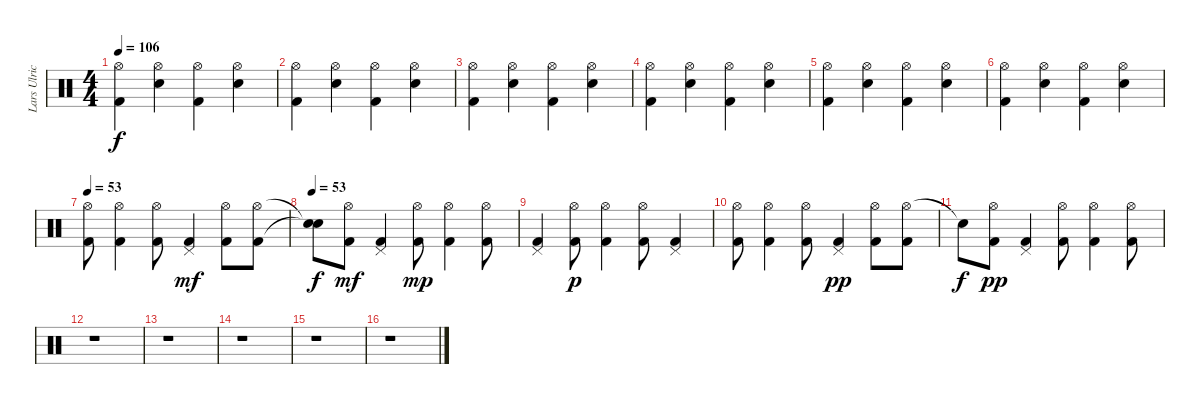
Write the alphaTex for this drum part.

\track ("Lars Ulrich" "Lars Ulric") {instrument percussion}
\staff {score}
\articulation defaults
\ts (4 4)
\tempo 106
\clef neutral
\ks c
("Hi-Hat (open)" "Kick (hit) 2").4{dy f} ("Hi-Hat (open)" "Electric Snare (hit)").4 ("Hi-Hat (open)" "Kick (hit) 2").4 ("Hi-Hat (open)" "Electric Snare (hit)").4 |
("Hi-Hat (open)" "Kick (hit) 2").4 ("Hi-Hat (open)" "Electric Snare (hit)").4 ("Hi-Hat (open)" "Kick (hit) 2").4 ("Hi-Hat (open)" "Electric Snare (hit)").4 |
("Hi-Hat (open)" "Kick (hit) 2").4 ("Hi-Hat (open)" "Electric Snare (hit)").4 ("Hi-Hat (open)" "Kick (hit) 2").4 ("Hi-Hat (open)" "Electric Snare (hit)").4 |
("Hi-Hat (open)" "Kick (hit) 2").4 ("Hi-Hat (open)" "Electric Snare (hit)").4 ("Hi-Hat (open)" "Kick (hit) 2").4 ("Hi-Hat (open)" "Electric Snare (hit)").4 |
("Hi-Hat (open)" "Kick (hit) 2").4 ("Hi-Hat (open)" "Electric Snare (hit)").4 ("Hi-Hat (open)" "Kick (hit) 2").4 ("Hi-Hat (open)" "Electric Snare (hit)").4 |
("Hi-Hat (open)" "Kick (hit) 2").4 ("Hi-Hat (open)" "Electric Snare (hit)").4 ("Hi-Hat (open)" "Kick (hit) 2").4 ("Hi-Hat (open)" "Electric Snare (hit)").4 |
\tempo 53
("Hi-Hat (open)" "Kick (hit) 2").8 ("Hi-Hat (open)" "Kick (hit) 2").4 ("Hi-Hat (open)" "Kick (hit) 2").8 ("Pedal Hi-Hat (hit)" "Kick (hit) 2").4{dy mf} ("Hi-Hat (open)" "Kick (hit) 2").8 ("Hi-Hat (open)" "Kick (hit) 2").8 |
\tempo 53
("Snare (hit)"{t} "Snare (hit)"{t}).8{dy f} ("Hi-Hat (open)" "Kick (hit) 2").8{dy mf} ("Pedal Hi-Hat (hit)" "Kick (hit) 2").4 ("Hi-Hat (open)" "Kick (hit) 2").8{dy mp} ("Hi-Hat (open)" "Kick (hit) 2").4 ("Hi-Hat (open)" "Kick (hit) 2").8 |
("Pedal Hi-Hat (hit)" "Kick (hit) 2").4 ("Hi-Hat (open)" "Kick (hit) 2").8{dy p} ("Hi-Hat (open)" "Kick (hit) 2").4 ("Hi-Hat (open)" "Kick (hit) 2").8 ("Pedal Hi-Hat (hit)" "Kick (hit) 2").4 |
("Hi-Hat (open)" "Kick (hit) 2").8 ("Hi-Hat (open)" "Kick (hit) 2").4 ("Hi-Hat (open)" "Kick (hit) 2").8 ("Pedal Hi-Hat (hit)" "Kick (hit) 2").4{dy pp} ("Hi-Hat (open)" "Kick (hit) 2").8 ("Hi-Hat (open)" "Kick (hit) 2").8 |
"Snare (hit)"{t}.8{dy f} ("Hi-Hat (open)" "Kick (hit) 2").8{dy pp} ("Pedal Hi-Hat (hit)" "Kick (hit) 2").4 ("Hi-Hat (open)" "Kick (hit) 2").8 ("Hi-Hat (open)" "Kick (hit) 2").4 ("Hi-Hat (open)" "Kick (hit) 2").8 |
r.1 |
r.1 |
r.1 |
r.1 |
r.1
